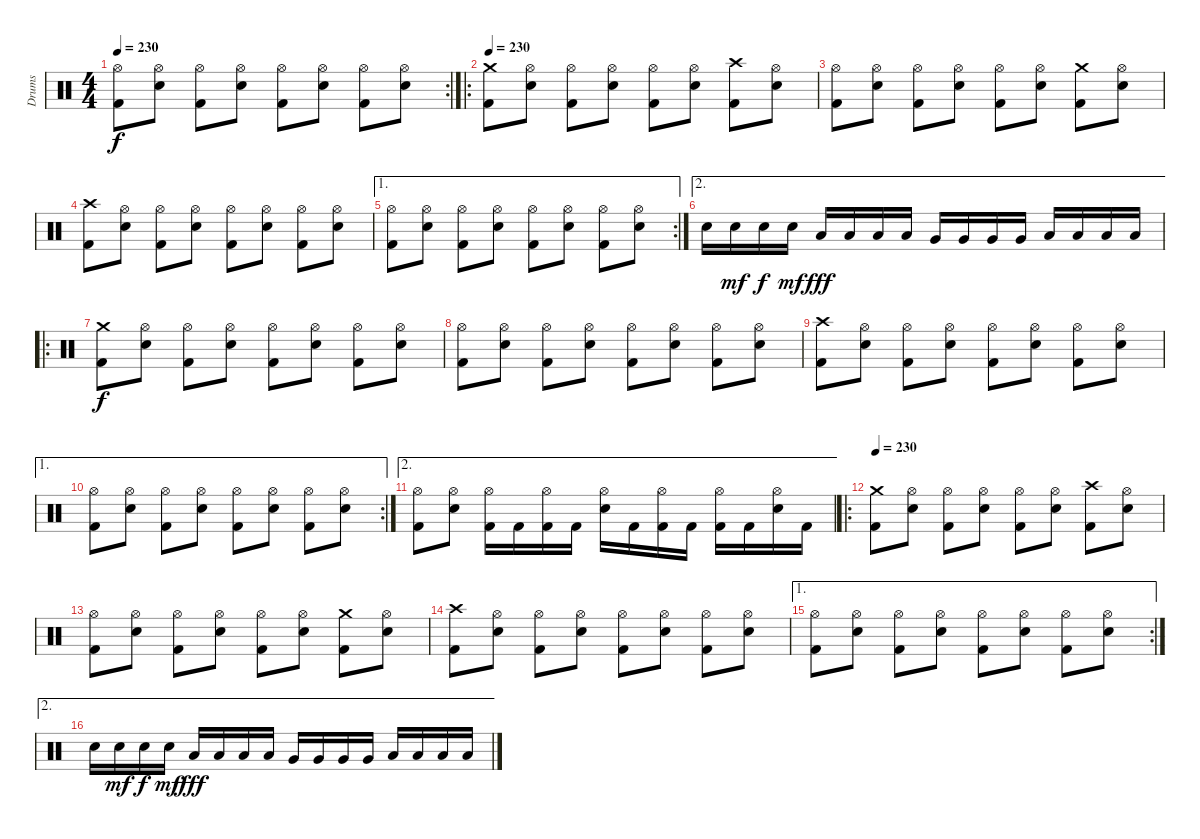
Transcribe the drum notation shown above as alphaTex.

\track ("Drums" "Drums") {instrument percussion}
\staff {score}
\articulation defaults
\rc 2
\ts (4 4)
\tempo 230
\clef neutral
\ks c
("Hi-Hat (open)" "Kick (hit) 2").8{dy f} ("Hi-Hat (open)" "Snare (hit) 2").8 ("Hi-Hat (open)" "Kick (hit) 2").8 ("Hi-Hat (open)" "Snare (hit) 2").8 ("Hi-Hat (open)" "Kick (hit) 2").8 ("Hi-Hat (open)" "Snare (hit) 2").8 ("Hi-Hat (open)" "Kick (hit) 2").8 ("Hi-Hat (open)" "Snare (hit) 2").8 |
\ro
\tempo 230
("Crash medium (hit)" "Kick (hit) 2").8 ("Hi-Hat (open)" "Snare (hit) 2").8 ("Hi-Hat (open)" "Kick (hit) 2").8 ("Hi-Hat (open)" "Snare (hit) 2").8 ("Hi-Hat (open)" "Kick (hit) 2").8 ("Hi-Hat (open)" "Snare (hit) 2").8 ("Crash high (hit)" "Kick (hit) 2").8 ("Hi-Hat (open)" "Snare (hit) 2").8 |
("Hi-Hat (open)" "Kick (hit) 2").8 ("Hi-Hat (open)" "Snare (hit) 2").8 ("Hi-Hat (open)" "Kick (hit) 2").8 ("Hi-Hat (open)" "Snare (hit) 2").8 ("Hi-Hat (open)" "Kick (hit) 2").8 ("Hi-Hat (open)" "Snare (hit) 2").8 ("Crash medium (hit)" "Kick (hit) 2").8 ("Hi-Hat (open)" "Snare (hit) 2").8 |
("Crash high (hit)" "Kick (hit) 2").8 ("Hi-Hat (open)" "Snare (hit) 2").8 ("Hi-Hat (open)" "Kick (hit) 2").8 ("Hi-Hat (open)" "Snare (hit) 2").8 ("Hi-Hat (open)" "Kick (hit) 2").8 ("Hi-Hat (open)" "Snare (hit) 2").8 ("Hi-Hat (open)" "Kick (hit) 2").8 ("Hi-Hat (open)" "Snare (hit) 2").8 |
\ae 1
\rc 2
("Hi-Hat (open)" "Kick (hit) 2").8 ("Hi-Hat (open)" "Snare (hit) 2").8 ("Hi-Hat (open)" "Kick (hit) 2").8 ("Hi-Hat (open)" "Snare (hit) 2").8 ("Hi-Hat (open)" "Kick (hit) 2").8 ("Hi-Hat (open)" "Snare (hit) 2").8 ("Hi-Hat (open)" "Kick (hit) 2").8 ("Hi-Hat (open)" "Snare (hit) 2").8 |
\ae 2 "Snare (hit) 2".16 "Snare (hit) 2".16{dy mf} "Snare (hit) 2".16{dy f} "Snare (hit) 2".16{dy mf} "Low Tom (hit)".16{dy fff} "Low Tom (hit)".16 "Low Tom (hit)".16 "Low Tom (hit)".16 "Very Low Tom (hit)".16 "Very Low Tom (hit)".16 "Very Low Tom (hit)".16 "Very Low Tom (hit)".16 "Low Floor Tom (hit)".16 "Low Floor Tom (hit)".16 "Low Floor Tom (hit)".16 "Low Floor Tom (hit)".16
|
\ro
("Crash medium (hit)" "Kick (hit) 2").8{dy f} ("Hi-Hat (open)" "Snare (hit) 2").8 ("Hi-Hat (open)" "Kick (hit) 2").8 ("Hi-Hat (open)" "Snare (hit) 2").8 ("Hi-Hat (open)" "Kick (hit) 2").8 ("Hi-Hat (open)" "Snare (hit) 2").8 ("Hi-Hat (open)" "Kick (hit) 2").8 ("Hi-Hat (open)" "Snare (hit) 2").8 |
("Hi-Hat (open)" "Kick (hit) 2").8 ("Hi-Hat (open)" "Snare (hit) 2").8 ("Hi-Hat (open)" "Kick (hit) 2").8 ("Hi-Hat (open)" "Snare (hit) 2").8 ("Hi-Hat (open)" "Kick (hit) 2").8 ("Hi-Hat (open)" "Snare (hit) 2").8 ("Hi-Hat (open)" "Kick (hit) 2").8 ("Hi-Hat (open)" "Snare (hit) 2").8 |
("Crash high (hit)" "Kick (hit) 2").8 ("Hi-Hat (open)" "Snare (hit) 2").8 ("Hi-Hat (open)" "Kick (hit) 2").8 ("Hi-Hat (open)" "Snare (hit) 2").8 ("Hi-Hat (open)" "Kick (hit) 2").8 ("Hi-Hat (open)" "Snare (hit) 2").8 ("Hi-Hat (open)" "Kick (hit) 2").8 ("Hi-Hat (open)" "Snare (hit) 2").8 |
\ae 1
\rc 2
("Hi-Hat (open)" "Kick (hit) 2").8 ("Hi-Hat (open)" "Snare (hit) 2").8 ("Hi-Hat (open)" "Kick (hit) 2").8 ("Hi-Hat (open)" "Snare (hit) 2").8 ("Hi-Hat (open)" "Kick (hit) 2").8 ("Hi-Hat (open)" "Snare (hit) 2").8 ("Hi-Hat (open)" "Kick (hit) 2").8 ("Hi-Hat (open)" "Snare (hit) 2").8 |
\ae 2
("Hi-Hat (open)" "Kick (hit) 2").8 ("Hi-Hat (open)" "Snare (hit) 2").8 ("Hi-Hat (open)" "Kick (hit) 2").16 "Kick (hit) 2".16 ("Hi-Hat (open)" "Kick (hit) 2").16 "Kick (hit) 2".16 ("Hi-Hat (open)" "Snare (hit) 2").16 "Kick (hit) 2".16 ("Hi-Hat (open)" "Kick (hit) 2").16 "Kick (hit) 2".16 ("Hi-Hat (open)" "Kick (hit) 2").16 "Kick (hit) 2".16 ("Hi-Hat (open)" "Snare (hit) 2").16 "Kick (hit) 2".16 |
\ro
\tempo 230
("Crash medium (hit)" "Kick (hit) 2").8 ("Hi-Hat (open)" "Snare (hit) 2").8 ("Hi-Hat (open)" "Kick (hit) 2").8 ("Hi-Hat (open)" "Snare (hit) 2").8 ("Hi-Hat (open)" "Kick (hit) 2").8 ("Hi-Hat (open)" "Snare (hit) 2").8 ("Crash high (hit)" "Kick (hit) 2").8 ("Hi-Hat (open)" "Snare (hit) 2").8 |
("Hi-Hat (open)" "Kick (hit) 2").8 ("Hi-Hat (open)" "Snare (hit) 2").8 ("Hi-Hat (open)" "Kick (hit) 2").8 ("Hi-Hat (open)" "Snare (hit) 2").8 ("Hi-Hat (open)" "Kick (hit) 2").8 ("Hi-Hat (open)" "Snare (hit) 2").8 ("Crash medium (hit)" "Kick (hit) 2").8 ("Hi-Hat (open)" "Snare (hit) 2").8 |
("Crash high (hit)" "Kick (hit) 2").8 ("Hi-Hat (open)" "Snare (hit) 2").8 ("Hi-Hat (open)" "Kick (hit) 2").8 ("Hi-Hat (open)" "Snare (hit) 2").8 ("Hi-Hat (open)" "Kick (hit) 2").8 ("Hi-Hat (open)" "Snare (hit) 2").8 ("Hi-Hat (open)" "Kick (hit) 2").8 ("Hi-Hat (open)" "Snare (hit) 2").8 |
\ae 1
\rc 2
("Hi-Hat (open)" "Kick (hit) 2").8 ("Hi-Hat (open)" "Snare (hit) 2").8 ("Hi-Hat (open)" "Kick (hit) 2").8 ("Hi-Hat (open)" "Snare (hit) 2").8 ("Hi-Hat (open)" "Kick (hit) 2").8 ("Hi-Hat (open)" "Snare (hit) 2").8 ("Hi-Hat (open)" "Kick (hit) 2").8 ("Hi-Hat (open)" "Snare (hit) 2").8 |
\ae 2 "Snare (hit) 2".16 "Snare (hit) 2".16{dy mf} "Snare (hit) 2".16{dy f} "Snare (hit) 2".16{dy mf} "Low Tom (hit)".16{dy fff} "Low Tom (hit)".16 "Low Tom (hit)".16 "Low Tom (hit)".16 "Very Low Tom (hit)".16 "Very Low Tom (hit)".16 "Very Low Tom (hit)".16 "Very Low Tom (hit)".16 "Low Floor Tom (hit)".16 "Low Floor Tom (hit)".16 "Low Floor Tom (hit)".16 "Low Floor Tom (hit)".16
